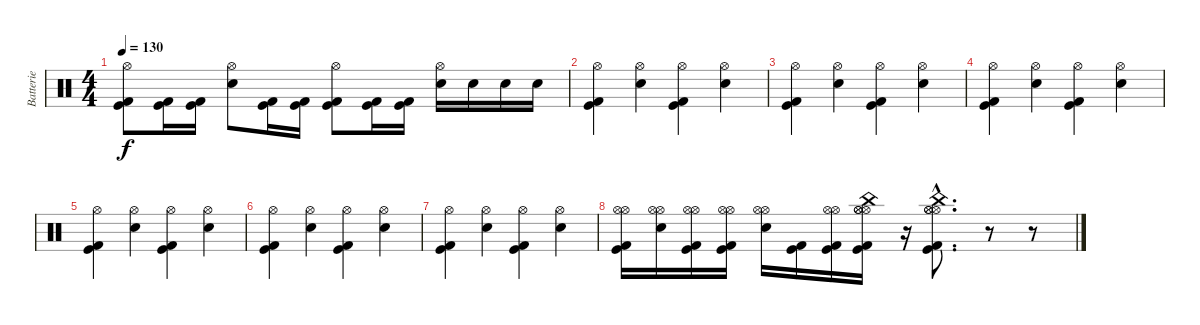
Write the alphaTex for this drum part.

\track ("Batterie" "Batterie") {instrument percussion}
\staff {score}
\articulation defaults
\ts (4 4)
\tempo 130
\clef neutral
\ks c
("Hi-Hat (open)" "Kick (hit) 2" "Kick (hit)").8{dy f} ("Kick (hit)" "Kick (hit) 2").16 ("Kick (hit)" "Kick (hit) 2").16 ("Hi-Hat (open)" "Electric Snare (hit)").8 ("Kick (hit)" "Kick (hit) 2").16 ("Kick (hit) 2" "Kick (hit)").16 ("Hi-Hat (open)" "Kick (hit)" "Kick (hit) 2").8 ("Kick (hit)" "Kick (hit) 2").16 ("Kick (hit) 2" "Kick (hit)").16 ("Hi-Hat (open)" "Electric Snare (hit)").16 "Electric Snare (hit)".16 "Electric Snare (hit)".16 "Electric Snare (hit)".16 |
("Hi-Hat (open)" "Kick (hit) 2" "Kick (hit)").4 ("Hi-Hat (open)" "Electric Snare (hit)").4 ("Hi-Hat (open)" "Kick (hit)" "Kick (hit) 2").4 ("Hi-Hat (open)" "Electric Snare (hit)").4 |
("Hi-Hat (open)" "Kick (hit) 2" "Kick (hit)").4 ("Hi-Hat (open)" "Electric Snare (hit)").4 ("Hi-Hat (open)" "Kick (hit)" "Kick (hit) 2").4 ("Hi-Hat (open)" "Electric Snare (hit)").4 |
("Hi-Hat (open)" "Kick (hit) 2" "Kick (hit)").4 ("Hi-Hat (open)" "Electric Snare (hit)").4 ("Hi-Hat (open)" "Kick (hit)" "Kick (hit) 2").4 ("Hi-Hat (open)" "Electric Snare (hit)").4 |
("Hi-Hat (open)" "Kick (hit) 2" "Kick (hit)").4 ("Hi-Hat (open)" "Electric Snare (hit)").4 ("Hi-Hat (open)" "Kick (hit)" "Kick (hit) 2").4 ("Hi-Hat (open)" "Electric Snare (hit)").4 |
("Hi-Hat (open)" "Kick (hit) 2" "Kick (hit)").4 ("Hi-Hat (open)" "Electric Snare (hit)").4 ("Hi-Hat (open)" "Kick (hit)" "Kick (hit) 2").4 ("Hi-Hat (open)" "Electric Snare (hit)").4 |
("Hi-Hat (open)" "Kick (hit) 2" "Kick (hit)").4 ("Hi-Hat (open)" "Electric Snare (hit)").4 ("Hi-Hat (open)" "Kick (hit)" "Kick (hit) 2").4 ("Hi-Hat (open)" "Electric Snare (hit)").4 |
("Hi-Hat (open)" "Hi-Hat (open)" "Kick (hit)" "Kick (hit) 2").16 ("Hi-Hat (open)" "Hi-Hat (open)" "Electric Snare (hit)").16 ("Hi-Hat (open)" "Hi-Hat (open)" "Kick (hit)" "Kick (hit) 2").16 ("Hi-Hat (open)" "Hi-Hat (open)" "Kick (hit) 2" "Kick (hit)").16 ("Hi-Hat (open)" "Hi-Hat (open)" "Electric Snare (hit)").16 ("Kick (hit) 2" "Kick (hit)").16 ("Hi-Hat (open)" "Hi-Hat (open)" "Kick (hit)" "Kick (hit) 2").16 ("China (hit)" "Hi-Hat (open)" "Hi-Hat (open)" "Hi-Hat (open)" "Kick (hit)" "Kick (hit) 2").16 r.16 ("China (hit)"{hac} "Hi-Hat (open)"{hac} "Hi-Hat (open)"{hac} "Hi-Hat (open)"{hac} "Kick (hit) 2"{hac} "Kick (hit)"{hac}).8{d} r.8 r.8
